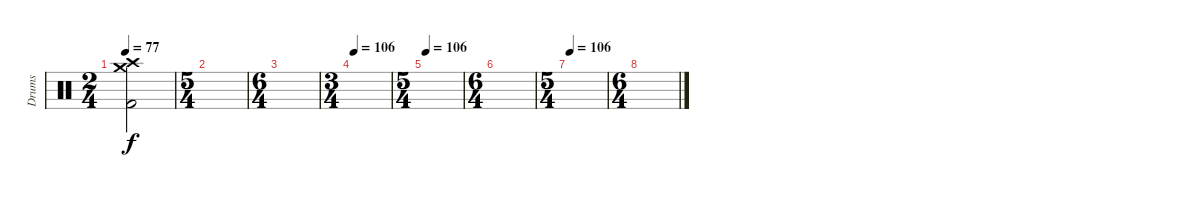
\track ("Drums" "Drums") {instrument percussion}
\staff {score}
\articulation defaults
\ts (2 4)
\tempo 77
\clef neutral
\ks c
("Crash medium (hit)" "Crash high (hit)" "Kick (hit) 2").2{dy f} |
\ts (5 4)
|
\ts (6 4)
|
\ts (3 4)
\tempo 106
|
\ts (5 4)
\tempo 106
|
\ts (6 4)
|
\ts (5 4)
\tempo 106
|
\ts (6 4)
